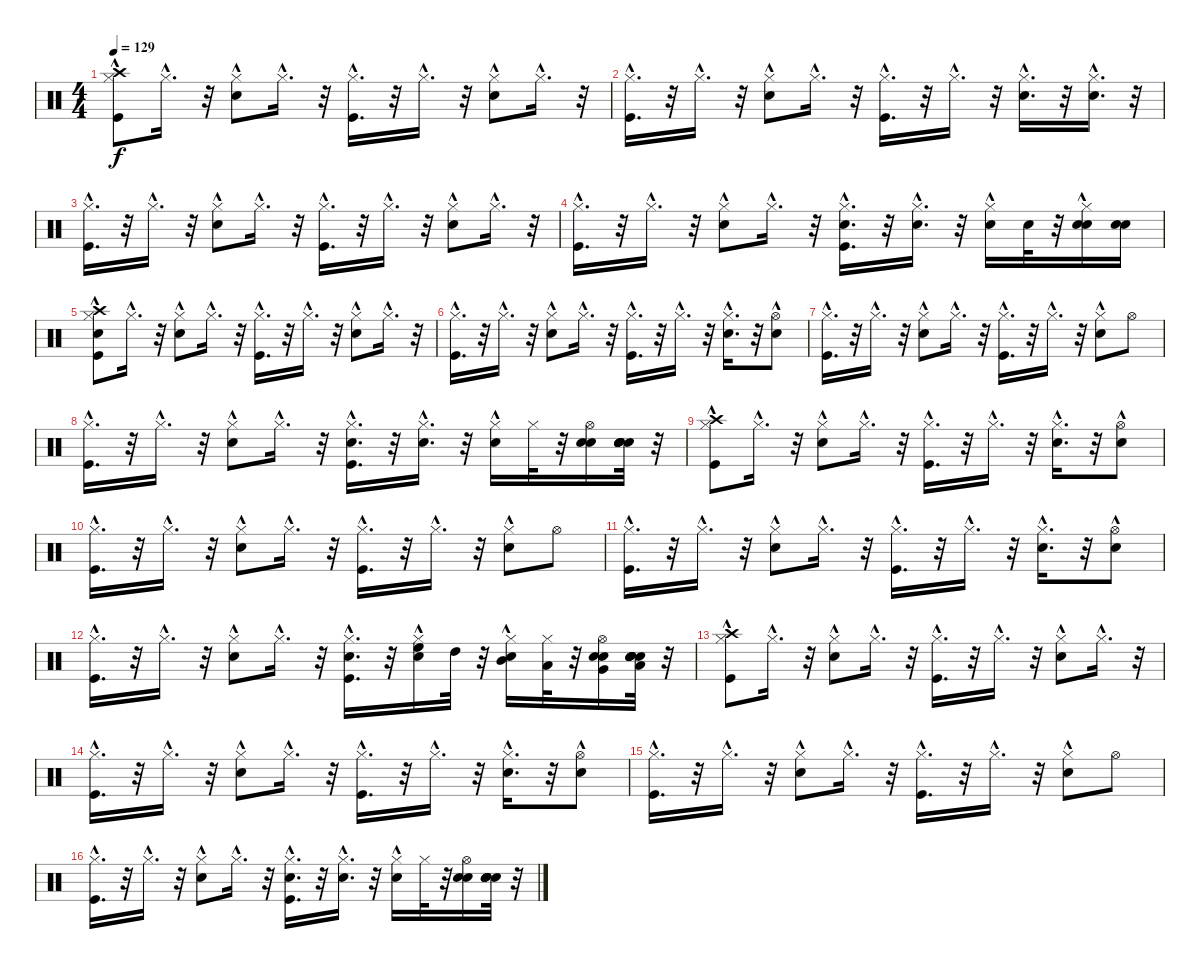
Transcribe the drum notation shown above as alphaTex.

\track "" {instrument percussion}
\staff {score}
\articulation defaults
\ts (4 4)
\tempo 129
\clef neutral
\ks c
("Crash high (hit)" "Hi-Hat (closed)"{hac} "Kick (hit)"{hac}).8{dy f} "Hi-Hat (closed)"{hac}.16{d} r.32 ("Hi-Hat (closed)"{hac} "Snare (hit) 2").8 "Hi-Hat (closed)"{hac}.16{d} r.32 ("Hi-Hat (closed)"{hac} "Kick (hit)"{hac}).16{d} r.32 "Hi-Hat (closed)"{hac}.16{d} r.32 ("Hi-Hat (closed)"{hac} "Snare (hit) 2").8 "Hi-Hat (closed)"{hac}.16{d} r.32 |
("Hi-Hat (closed)"{hac} "Kick (hit)"{hac}).16{d} r.32 "Hi-Hat (closed)"{hac}.16{d} r.32 ("Snare (hit) 2" "Hi-Hat (closed)"{hac}).8 "Hi-Hat (closed)"{hac}.16{d} r.32 ("Hi-Hat (closed)"{hac} "Kick (hit)"{hac}).16{d} r.32 "Hi-Hat (closed)"{hac}.16{d} r.32 ("Snare (hit) 2"{hac} "Hi-Hat (closed)"{hac}).16{d} r.32 ("Snare (hit) 2"{hac} "Hi-Hat (closed)"{hac}).16{d} r.32 |
("Hi-Hat (closed)"{hac} "Kick (hit)"{hac}).16{d} r.32 "Hi-Hat (closed)"{hac}.16{d} r.32 ("Hi-Hat (closed)"{hac} "Snare (hit) 2").8 "Hi-Hat (closed)"{hac}.16{d} r.32 ("Hi-Hat (closed)"{hac} "Kick (hit)"{hac}).16{d} r.32 "Hi-Hat (closed)"{hac}.16{d} r.32 ("Hi-Hat (closed)"{hac} "Snare (hit) 2").8 "Hi-Hat (closed)"{hac}.16{d} r.32 |
("Hi-Hat (closed)"{hac} "Kick (hit)"{hac}).16{d} r.32 "Hi-Hat (closed)"{hac}.16{d} r.32 ("Snare (hit) 2" "Hi-Hat (closed)"{hac}).8 "Hi-Hat (closed)"{hac}.16{d} r.32 ("Snare (hit) 2"{hac} "Hi-Hat (closed)"{hac} "Kick (hit)"{hac}).16{d} r.32 ("Snare (hit) 2"{hac} "Hi-Hat (closed)"{hac}).16{d} r.32 ("Snare (hit) 2" "Hi-Hat (closed)"{hac}).16 "Snare (hit) 2".32 r.32 ("Electric Snare (hit)" "Snare (hit) 2" "Hi-Hat (closed)"{hac}).16 ("Electric Snare (hit)" "Snare (hit) 2").16 |
("Electric Snare (hit)" "Crash high (hit)" "Hi-Hat (closed)"{hac} "Kick (hit)"{hac}).8 "Hi-Hat (closed)"{hac}.16{d} r.32 ("Hi-Hat (closed)"{hac} "Snare (hit) 2").8 "Hi-Hat (closed)"{hac}.16{d} r.32 ("Hi-Hat (closed)"{hac} "Kick (hit)"{hac}).16{d} r.32 "Hi-Hat (closed)"{hac}.16{d} r.32 ("Hi-Hat (closed)"{hac} "Snare (hit) 2").8 "Hi-Hat (closed)"{hac}.16{d} r.32 |
("Hi-Hat (closed)"{hac} "Kick (hit)"{hac}).16{d} r.32 "Hi-Hat (closed)"{hac}.16{d} r.32 ("Hi-Hat (closed)"{hac} "Snare (hit) 2").8 "Hi-Hat (closed)"{hac}.16{d} r.32 ("Hi-Hat (closed)"{hac} "Kick (hit)"{hac}).16{d} r.32 "Hi-Hat (closed)"{hac}.16{d} r.32 ("Hi-Hat (closed)"{hac} "Snare (hit) 2"{hac}).16{d} r.32 ("Hi-Hat (open)" "Snare (hit) 2"{hac}).8 |
("Hi-Hat (closed)"{hac} "Kick (hit)"{hac}).16{d} r.32 "Hi-Hat (closed)"{hac}.16{d} r.32 ("Hi-Hat (closed)"{hac} "Snare (hit) 2").8 "Hi-Hat (closed)"{hac}.16{d} r.32 ("Hi-Hat (closed)"{hac} "Kick (hit)"{hac}).16{d} r.32 "Hi-Hat (closed)"{hac}.16{d} r.32 ("Hi-Hat (closed)"{hac} "Snare (hit) 2").8 "Hi-Hat (open)".8 |
("Hi-Hat (closed)"{hac} "Kick (hit)"{hac}).16{d} r.32 "Hi-Hat (closed)"{hac}.16{d} r.32 ("Hi-Hat (closed)"{hac} "Snare (hit) 2").8 "Hi-Hat (closed)"{hac}.16{d} r.32 ("Snare (hit) 2"{hac} "Hi-Hat (closed)"{hac} "Kick (hit)"{hac}).16{d} r.32 ("Snare (hit) 2"{hac} "Hi-Hat (closed)"{hac}).16{d} r.32 ("Hi-Hat (closed)" "Snare (hit) 2"{hac}).16 "Hi-Hat (closed)".32 r.32 ("Hi-Hat (open)" "Snare (hit) 2" "Snare (hit) 2").16 ("Snare (hit) 2" "Snare (hit) 2" "Snare (hit) 2" "Electric Snare (hit)" "Electric Snare (hit)").32 r.32 |
("Crash high (hit)" "Hi-Hat (closed)"{hac} "Kick (hit)"{hac}).8 "Hi-Hat (closed)"{hac}.16{d} r.32 ("Hi-Hat (closed)"{hac} "Snare (hit) 2").8 "Hi-Hat (closed)"{hac}.16{d} r.32 ("Hi-Hat (closed)"{hac} "Kick (hit)"{hac}).16{d} r.32 "Hi-Hat (closed)"{hac}.16{d} r.32 ("Hi-Hat (closed)"{hac} "Snare (hit) 2"{hac}).16{d} r.32 ("Hi-Hat (open)" "Snare (hit) 2"{hac}).8 |
("Hi-Hat (closed)"{hac} "Kick (hit)"{hac}).16{d} r.32 "Hi-Hat (closed)"{hac}.16{d} r.32 ("Hi-Hat (closed)"{hac} "Snare (hit) 2").8 "Hi-Hat (closed)"{hac}.16{d} r.32 ("Hi-Hat (closed)"{hac} "Kick (hit)"{hac}).16{d} r.32 "Hi-Hat (closed)"{hac}.16{d} r.32 ("Hi-Hat (closed)"{hac} "Snare (hit) 2").8 "Hi-Hat (open)".8 |
("Hi-Hat (closed)"{hac} "Kick (hit)"{hac}).16{d} r.32 "Hi-Hat (closed)"{hac}.16{d} r.32 ("Hi-Hat (closed)"{hac} "Snare (hit) 2").8 "Hi-Hat (closed)"{hac}.16{d} r.32 ("Hi-Hat (closed)"{hac} "Kick (hit)"{hac}).16{d} r.32 "Hi-Hat (closed)"{hac}.16{d} r.32 ("Hi-Hat (closed)"{hac} "Snare (hit) 2"{hac}).16{d} r.32 ("Snare (hit) 2"{hac} "Hi-Hat (open)").8 |
("Hi-Hat (closed)"{hac} "Kick (hit)"{hac}).16{d} r.32 "Hi-Hat (closed)"{hac}.16{d} r.32 ("Hi-Hat (closed)"{hac} "Snare (hit) 2").8 "Hi-Hat (closed)"{hac}.16{d} r.32 ("Snare (hit) 2"{hac} "Hi-Hat (closed)"{hac} "Kick (hit)"{hac}).16{d} r.32 ("High Floor Tom (hit)" "Snare (hit) 2"{hac} "Hi-Hat (closed)"{hac}).16 "High Tom (hit)".32 r.32 ("Mid Tom (hit)" "Hi-Hat (closed)" "Snare (hit) 2"{hac}).16 ("Low Tom (hit)" "Hi-Hat (closed)").32 r.32 ("Very Low Tom (hit)" "Hi-Hat (open)" "Snare (hit) 2" "Snare (hit) 2").16 ("Low Floor Tom (hit)" "Snare (hit) 2" "Snare (hit) 2" "Snare (hit) 2" "Electric Snare (hit)" "Electric Snare (hit)").32 r.32 |
("Crash high (hit)" "Hi-Hat (closed)"{hac} "Kick (hit)"{hac}).8 "Hi-Hat (closed)"{hac}.16{d} r.32 ("Hi-Hat (closed)"{hac} "Snare (hit) 2").8 "Hi-Hat (closed)"{hac}.16{d} r.32 ("Hi-Hat (closed)"{hac} "Kick (hit)"{hac}).16{d} r.32 "Hi-Hat (closed)"{hac}.16{d} r.32 ("Hi-Hat (closed)"{hac} "Snare (hit) 2").8 "Hi-Hat (closed)"{hac}.16{d} r.32 |
("Hi-Hat (closed)"{hac} "Kick (hit)"{hac}).16{d} r.32 "Hi-Hat (closed)"{hac}.16{d} r.32 ("Hi-Hat (closed)"{hac} "Snare (hit) 2").8 "Hi-Hat (closed)"{hac}.16{d} r.32 ("Hi-Hat (closed)"{hac} "Kick (hit)"{hac}).16{d} r.32 "Hi-Hat (closed)"{hac}.16{d} r.32 ("Hi-Hat (closed)"{hac} "Snare (hit) 2"{hac}).16{d} r.32 ("Hi-Hat (open)" "Snare (hit) 2"{hac}).8 |
("Hi-Hat (closed)"{hac} "Kick (hit)"{hac}).16{d} r.32 "Hi-Hat (closed)"{hac}.16{d} r.32 ("Hi-Hat (closed)"{hac} "Snare (hit) 2").8 "Hi-Hat (closed)"{hac}.16{d} r.32 ("Hi-Hat (closed)"{hac} "Kick (hit)"{hac}).16{d} r.32 "Hi-Hat (closed)"{hac}.16{d} r.32 ("Hi-Hat (closed)"{hac} "Snare (hit) 2").8 "Hi-Hat (open)".8 |
("Hi-Hat (closed)"{hac} "Kick (hit)"{hac}).16{d} r.32 "Hi-Hat (closed)"{hac}.16{d} r.32 ("Hi-Hat (closed)"{hac} "Snare (hit) 2").8 "Hi-Hat (closed)"{hac}.16{d} r.32 ("Snare (hit) 2"{hac} "Hi-Hat (closed)"{hac} "Kick (hit)"{hac}).16{d} r.32 ("Snare (hit) 2"{hac} "Hi-Hat (closed)"{hac}).16{d} r.32 ("Hi-Hat (closed)" "Snare (hit) 2"{hac}).16 "Hi-Hat (closed)".32 r.32 ("Hi-Hat (open)" "Snare (hit) 2" "Snare (hit) 2").16 ("Snare (hit) 2" "Snare (hit) 2" "Snare (hit) 2" "Electric Snare (hit)" "Electric Snare (hit)").32 r.32
